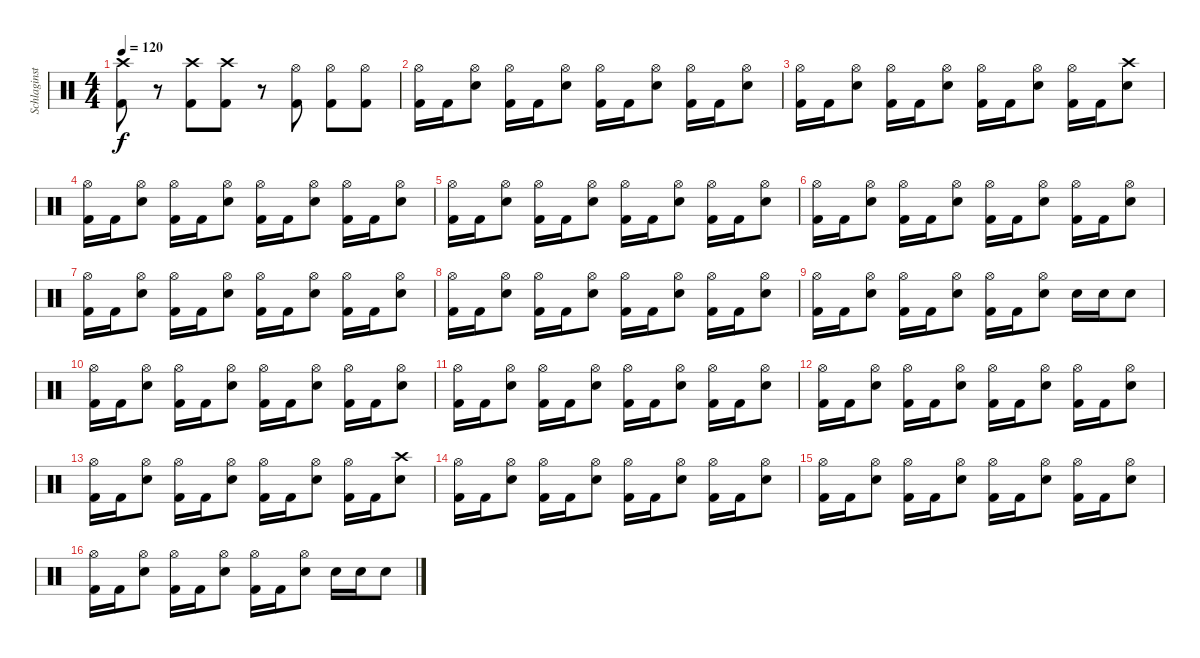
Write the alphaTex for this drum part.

\track ("Schlaginstrumente - Auswahl" "Schlaginst") {instrument percussion}
\staff {score}
\articulation defaults
\ts (4 4)
\tempo 120
\clef neutral
\ks c
("Crash high (hit)" "Kick (hit) 2").8{dy f} r.8 ("Crash high (hit)" "Kick (hit) 2").8 ("Crash high (hit)" "Kick (hit) 2").8 r.8 ("Hi-Hat (open)" "Kick (hit) 2").8 ("Hi-Hat (open)" "Kick (hit) 2").8 ("Hi-Hat (open)" "Kick (hit) 2").8 |
("Hi-Hat (open)" "Kick (hit) 2").16 "Kick (hit) 2".16 ("Hi-Hat (open)" "Electric Snare (hit)").8 ("Hi-Hat (open)" "Kick (hit) 2").16 "Kick (hit) 2".16 ("Hi-Hat (open)" "Electric Snare (hit)").8 ("Hi-Hat (open)" "Kick (hit) 2").16 "Kick (hit) 2".16 ("Hi-Hat (open)" "Electric Snare (hit)").8 ("Hi-Hat (open)" "Kick (hit) 2").16 "Kick (hit) 2".16 ("Hi-Hat (open)" "Electric Snare (hit)").8 |
("Hi-Hat (open)" "Kick (hit) 2").16 "Kick (hit) 2".16 ("Hi-Hat (open)" "Electric Snare (hit)").8 ("Hi-Hat (open)" "Kick (hit) 2").16 "Kick (hit) 2".16 ("Hi-Hat (open)" "Electric Snare (hit)").8 ("Hi-Hat (open)" "Kick (hit) 2").16 "Kick (hit) 2".16 ("Hi-Hat (open)" "Electric Snare (hit)").8 ("Hi-Hat (open)" "Kick (hit) 2").16 "Kick (hit) 2".16 ("Crash high (hit)" "Electric Snare (hit)").8 |
("Hi-Hat (open)" "Kick (hit) 2").16 "Kick (hit) 2".16 ("Hi-Hat (open)" "Electric Snare (hit)").8 ("Hi-Hat (open)" "Kick (hit) 2").16 "Kick (hit) 2".16 ("Hi-Hat (open)" "Electric Snare (hit)").8 ("Hi-Hat (open)" "Kick (hit) 2").16 "Kick (hit) 2".16 ("Hi-Hat (open)" "Electric Snare (hit)").8 ("Hi-Hat (open)" "Kick (hit) 2").16 "Kick (hit) 2".16 ("Hi-Hat (open)" "Electric Snare (hit)").8 |
("Hi-Hat (open)" "Kick (hit) 2").16 "Kick (hit) 2".16 ("Hi-Hat (open)" "Electric Snare (hit)").8 ("Hi-Hat (open)" "Kick (hit) 2").16 "Kick (hit) 2".16 ("Hi-Hat (open)" "Electric Snare (hit)").8 ("Hi-Hat (open)" "Kick (hit) 2").16 "Kick (hit) 2".16 ("Hi-Hat (open)" "Electric Snare (hit)").8 ("Hi-Hat (open)" "Kick (hit) 2").16 "Kick (hit) 2".16 ("Hi-Hat (open)" "Electric Snare (hit)").8 |
("Hi-Hat (open)" "Kick (hit) 2").16 "Kick (hit) 2".16 ("Hi-Hat (open)" "Electric Snare (hit)").8 ("Hi-Hat (open)" "Kick (hit) 2").16 "Kick (hit) 2".16 ("Hi-Hat (open)" "Electric Snare (hit)").8 ("Hi-Hat (open)" "Kick (hit) 2").16 "Kick (hit) 2".16 ("Hi-Hat (open)" "Electric Snare (hit)").8 ("Hi-Hat (open)" "Kick (hit) 2").16 "Kick (hit) 2".16 ("Hi-Hat (open)" "Electric Snare (hit)").8 |
("Hi-Hat (open)" "Kick (hit) 2").16 "Kick (hit) 2".16 ("Hi-Hat (open)" "Electric Snare (hit)").8 ("Hi-Hat (open)" "Kick (hit) 2").16 "Kick (hit) 2".16 ("Hi-Hat (open)" "Electric Snare (hit)").8 ("Hi-Hat (open)" "Kick (hit) 2").16 "Kick (hit) 2".16 ("Hi-Hat (open)" "Electric Snare (hit)").8 ("Hi-Hat (open)" "Kick (hit) 2").16 "Kick (hit) 2".16 ("Hi-Hat (open)" "Electric Snare (hit)").8 |
("Hi-Hat (open)" "Kick (hit) 2").16 "Kick (hit) 2".16 ("Hi-Hat (open)" "Electric Snare (hit)").8 ("Hi-Hat (open)" "Kick (hit) 2").16 "Kick (hit) 2".16 ("Hi-Hat (open)" "Electric Snare (hit)").8 ("Hi-Hat (open)" "Kick (hit) 2").16 "Kick (hit) 2".16 ("Hi-Hat (open)" "Electric Snare (hit)").8 ("Hi-Hat (open)" "Kick (hit) 2").16 "Kick (hit) 2".16 ("Hi-Hat (open)" "Electric Snare (hit)").8 |
("Hi-Hat (open)" "Kick (hit) 2").16 "Kick (hit) 2".16 ("Hi-Hat (open)" "Electric Snare (hit)").8 ("Hi-Hat (open)" "Kick (hit) 2").16 "Kick (hit) 2".16 ("Hi-Hat (open)" "Electric Snare (hit)").8 ("Hi-Hat (open)" "Kick (hit) 2").16 "Kick (hit) 2".16 ("Hi-Hat (open)" "Electric Snare (hit)").8 "Electric Snare (hit)".16 "Electric Snare (hit)".16 "Electric Snare (hit)".8 |
("Hi-Hat (open)" "Kick (hit) 2").16 "Kick (hit) 2".16 ("Hi-Hat (open)" "Electric Snare (hit)").8 ("Hi-Hat (open)" "Kick (hit) 2").16 "Kick (hit) 2".16 ("Hi-Hat (open)" "Electric Snare (hit)").8 ("Hi-Hat (open)" "Kick (hit) 2").16 "Kick (hit) 2".16 ("Hi-Hat (open)" "Electric Snare (hit)").8 ("Hi-Hat (open)" "Kick (hit) 2").16 "Kick (hit) 2".16 ("Hi-Hat (open)" "Electric Snare (hit)").8 |
("Hi-Hat (open)" "Kick (hit) 2").16 "Kick (hit) 2".16 ("Hi-Hat (open)" "Electric Snare (hit)").8 ("Hi-Hat (open)" "Kick (hit) 2").16 "Kick (hit) 2".16 ("Hi-Hat (open)" "Electric Snare (hit)").8 ("Hi-Hat (open)" "Kick (hit) 2").16 "Kick (hit) 2".16 ("Hi-Hat (open)" "Electric Snare (hit)").8 ("Hi-Hat (open)" "Kick (hit) 2").16 "Kick (hit) 2".16 ("Hi-Hat (open)" "Electric Snare (hit)").8 |
("Hi-Hat (open)" "Kick (hit) 2").16 "Kick (hit) 2".16 ("Hi-Hat (open)" "Electric Snare (hit)").8 ("Hi-Hat (open)" "Kick (hit) 2").16 "Kick (hit) 2".16 ("Hi-Hat (open)" "Electric Snare (hit)").8 ("Hi-Hat (open)" "Kick (hit) 2").16 "Kick (hit) 2".16 ("Hi-Hat (open)" "Electric Snare (hit)").8 ("Hi-Hat (open)" "Kick (hit) 2").16 "Kick (hit) 2".16 ("Hi-Hat (open)" "Electric Snare (hit)").8 |
("Hi-Hat (open)" "Kick (hit) 2").16 "Kick (hit) 2".16 ("Hi-Hat (open)" "Electric Snare (hit)").8 ("Hi-Hat (open)" "Kick (hit) 2").16 "Kick (hit) 2".16 ("Hi-Hat (open)" "Electric Snare (hit)").8 ("Hi-Hat (open)" "Kick (hit) 2").16 "Kick (hit) 2".16 ("Hi-Hat (open)" "Electric Snare (hit)").8 ("Hi-Hat (open)" "Kick (hit) 2").16 "Kick (hit) 2".16 ("Crash high (hit)" "Electric Snare (hit)").8 |
("Hi-Hat (open)" "Kick (hit) 2").16 "Kick (hit) 2".16 ("Hi-Hat (open)" "Electric Snare (hit)").8 ("Hi-Hat (open)" "Kick (hit) 2").16 "Kick (hit) 2".16 ("Hi-Hat (open)" "Electric Snare (hit)").8 ("Hi-Hat (open)" "Kick (hit) 2").16 "Kick (hit) 2".16 ("Hi-Hat (open)" "Electric Snare (hit)").8 ("Hi-Hat (open)" "Kick (hit) 2").16 "Kick (hit) 2".16 ("Hi-Hat (open)" "Electric Snare (hit)").8 |
("Hi-Hat (open)" "Kick (hit) 2").16 "Kick (hit) 2".16 ("Hi-Hat (open)" "Electric Snare (hit)").8 ("Hi-Hat (open)" "Kick (hit) 2").16 "Kick (hit) 2".16 ("Hi-Hat (open)" "Electric Snare (hit)").8 ("Hi-Hat (open)" "Kick (hit) 2").16 "Kick (hit) 2".16 ("Hi-Hat (open)" "Electric Snare (hit)").8 ("Hi-Hat (open)" "Kick (hit) 2").16 "Kick (hit) 2".16 ("Hi-Hat (open)" "Electric Snare (hit)").8 |
("Hi-Hat (open)" "Kick (hit) 2").16 "Kick (hit) 2".16 ("Hi-Hat (open)" "Electric Snare (hit)").8 ("Hi-Hat (open)" "Kick (hit) 2").16 "Kick (hit) 2".16 ("Hi-Hat (open)" "Electric Snare (hit)").8 ("Hi-Hat (open)" "Kick (hit) 2").16 "Kick (hit) 2".16 ("Hi-Hat (open)" "Electric Snare (hit)").8 "Electric Snare (hit)".16 "Electric Snare (hit)".16 "Electric Snare (hit)".8
